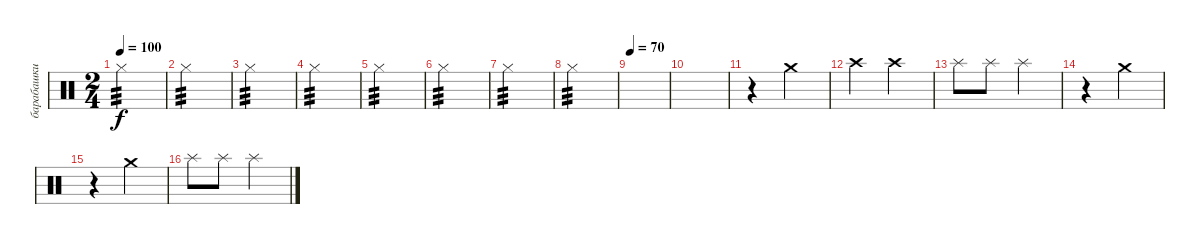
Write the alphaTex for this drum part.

\track ("барабашки high" "барабашки ") {instrument percussion}
\staff {score}
\articulation defaults
\ts (2 4)
\tempo 100
\clef neutral
\ks c "Hi-Hat (closed)".2{tp 3 dy f}
|
"Hi-Hat (closed)".2{tp 3} |
"Hi-Hat (closed)".2{tp 3} |
"Hi-Hat (closed)".2{tp 3} |
"Hi-Hat (closed)".2{tp 3} |
"Hi-Hat (closed)".2{tp 3} |
"Hi-Hat (closed)".2{tp 3} |
"Hi-Hat (closed)".2{tp 3} |
\tempo 70
|
|
r.4 "Crash medium (hit)".4 |
"Crash high (hit)".4 "Crash high (hit)".4 |
"Splash (hit)".8 "Splash (hit)".8 "Splash (hit)".4 |
r.4 "Crash medium (hit)".4 |
r.4 "Crash medium (hit)".4 |
"Splash (hit)".8 "Splash (hit)".8 "Splash (hit)".4
